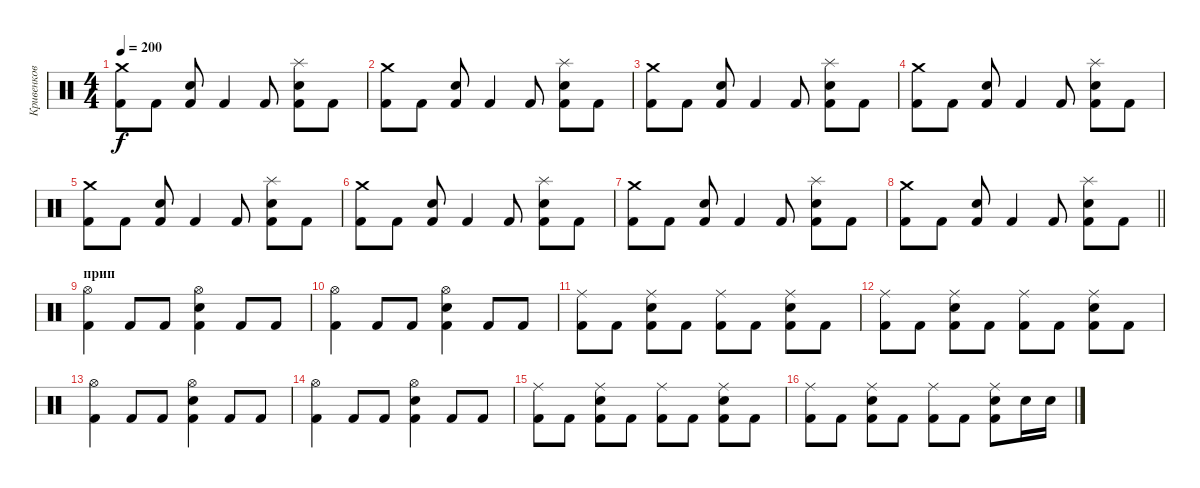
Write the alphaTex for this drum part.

\track ("Кривенков" "Кривенков") {instrument percussion}
\staff {score}
\articulation defaults
\ts (4 4)
\tempo 200
\clef neutral
\ks c
("Crash medium (hit)" "Kick (hit) 2").8{dy f} "Kick (hit) 2".8 ("Electric Snare (hit)" "Kick (hit) 2").8 "Kick (hit) 2".4 "Kick (hit) 2".8 ("Splash (hit)" "Electric Snare (hit)" "Kick (hit) 2").8 "Kick (hit) 2".8 |
("Crash medium (hit)" "Kick (hit) 2").8 "Kick (hit) 2".8 ("Electric Snare (hit)" "Kick (hit) 2").8 "Kick (hit) 2".4 "Kick (hit) 2".8 ("Splash (hit)" "Electric Snare (hit)" "Kick (hit) 2").8 "Kick (hit) 2".8 |
("Crash medium (hit)" "Kick (hit) 2").8 "Kick (hit) 2".8 ("Electric Snare (hit)" "Kick (hit) 2").8 "Kick (hit) 2".4 "Kick (hit) 2".8 ("Splash (hit)" "Electric Snare (hit)" "Kick (hit) 2").8 "Kick (hit) 2".8 |
("Crash medium (hit)" "Kick (hit) 2").8 "Kick (hit) 2".8 ("Electric Snare (hit)" "Kick (hit) 2").8 "Kick (hit) 2".4 "Kick (hit) 2".8 ("Splash (hit)" "Electric Snare (hit)" "Kick (hit) 2").8 "Kick (hit) 2".8 |
("Crash medium (hit)" "Kick (hit) 2").8 "Kick (hit) 2".8 ("Electric Snare (hit)" "Kick (hit) 2").8 "Kick (hit) 2".4 "Kick (hit) 2".8 ("Splash (hit)" "Electric Snare (hit)" "Kick (hit) 2").8 "Kick (hit) 2".8 |
("Crash medium (hit)" "Kick (hit) 2").8 "Kick (hit) 2".8 ("Electric Snare (hit)" "Kick (hit) 2").8 "Kick (hit) 2".4 "Kick (hit) 2".8 ("Splash (hit)" "Electric Snare (hit)" "Kick (hit) 2").8 "Kick (hit) 2".8 |
("Crash medium (hit)" "Kick (hit) 2").8 "Kick (hit) 2".8 ("Electric Snare (hit)" "Kick (hit) 2").8 "Kick (hit) 2".4 "Kick (hit) 2".8 ("Splash (hit)" "Electric Snare (hit)" "Kick (hit) 2").8 "Kick (hit) 2".8 |
\barLineRight lightlight
("Crash medium (hit)" "Kick (hit) 2").8 "Kick (hit) 2".8 ("Electric Snare (hit)" "Kick (hit) 2").8 "Kick (hit) 2".4 "Kick (hit) 2".8 ("Splash (hit)" "Electric Snare (hit)" "Kick (hit) 2").8 "Kick (hit) 2".8 |
\section ("" "прип")
("Hi-Hat (open)" "Kick (hit) 2").4 "Kick (hit) 2".8 "Kick (hit) 2".8 ("Hi-Hat (open)" "Electric Snare (hit)" "Kick (hit) 2").4 "Kick (hit) 2".8 "Kick (hit) 2".8 |
("Hi-Hat (open)" "Kick (hit) 2").4 "Kick (hit) 2".8 "Kick (hit) 2".8 ("Hi-Hat (open)" "Electric Snare (hit)" "Kick (hit) 2").4 "Kick (hit) 2".8 "Kick (hit) 2".8 |
("Ride (middle)" "Kick (hit) 2").8 "Kick (hit) 2".8 ("Ride (middle)" "Electric Snare (hit)" "Kick (hit) 2").8 "Kick (hit) 2".8 ("Ride (middle)" "Kick (hit) 2").8 "Kick (hit) 2".8 ("Ride (middle)" "Electric Snare (hit)" "Kick (hit) 2").8 "Kick (hit) 2".8 |
("Ride (middle)" "Kick (hit) 2").8 "Kick (hit) 2".8 ("Ride (middle)" "Electric Snare (hit)" "Kick (hit) 2").8 "Kick (hit) 2".8 ("Ride (middle)" "Kick (hit) 2").8 "Kick (hit) 2".8 ("Ride (middle)" "Electric Snare (hit)" "Kick (hit) 2").8 "Kick (hit) 2".8 |
("Hi-Hat (open)" "Kick (hit) 2").4 "Kick (hit) 2".8 "Kick (hit) 2".8 ("Hi-Hat (open)" "Electric Snare (hit)" "Kick (hit) 2").4 "Kick (hit) 2".8 "Kick (hit) 2".8 |
("Hi-Hat (open)" "Kick (hit) 2").4 "Kick (hit) 2".8 "Kick (hit) 2".8 ("Hi-Hat (open)" "Electric Snare (hit)" "Kick (hit) 2").4 "Kick (hit) 2".8 "Kick (hit) 2".8 |
("Ride (middle)" "Kick (hit) 2").8 "Kick (hit) 2".8 ("Ride (middle)" "Electric Snare (hit)" "Kick (hit) 2").8 "Kick (hit) 2".8 ("Ride (middle)" "Kick (hit) 2").8 "Kick (hit) 2".8 ("Ride (middle)" "Electric Snare (hit)" "Kick (hit) 2").8 "Kick (hit) 2".8 |
("Ride (middle)" "Kick (hit) 2").8 "Kick (hit) 2".8 ("Ride (middle)" "Electric Snare (hit)" "Kick (hit) 2").8 "Kick (hit) 2".8 ("Ride (middle)" "Kick (hit) 2").8 "Kick (hit) 2".8 ("Ride (middle)" "Electric Snare (hit)" "Kick (hit) 2").8 "Electric Snare (hit)".16 "Electric Snare (hit)".16
